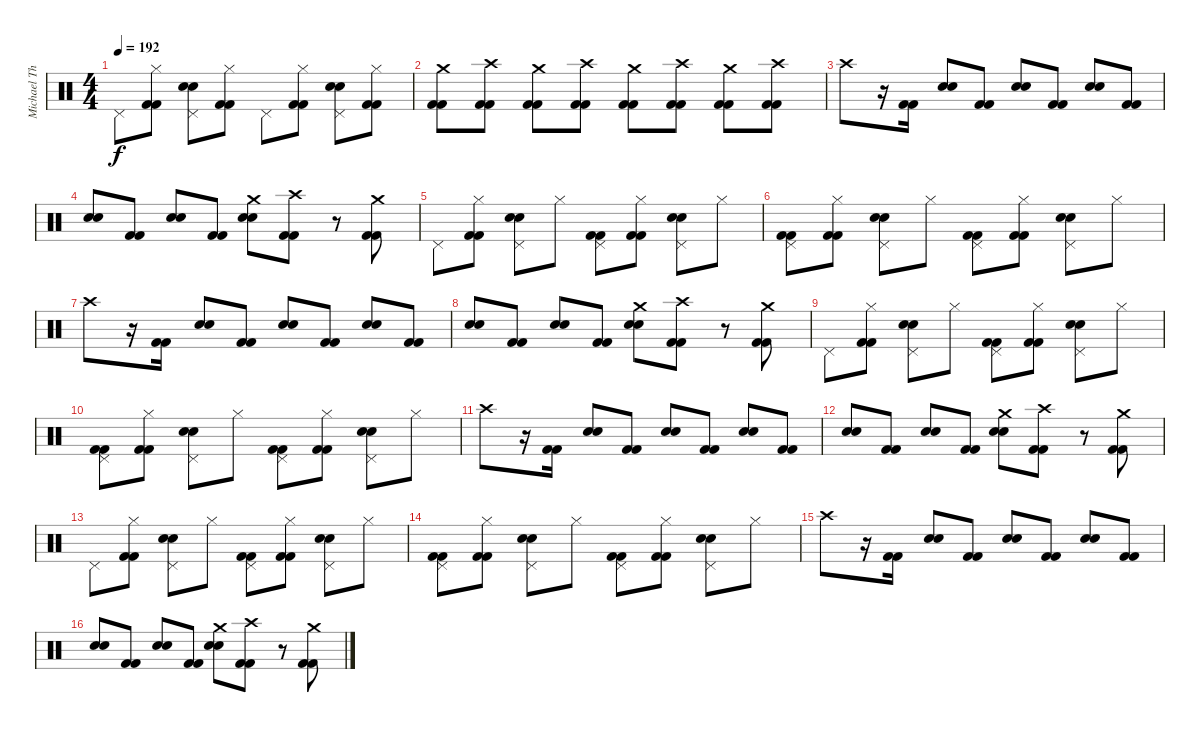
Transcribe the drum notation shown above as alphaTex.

\track ("Michael Thomas" "Michael Th") {instrument percussion}
\staff {score}
\articulation defaults
\ts (4 4)
\tempo 192
\clef neutral
\ks c "Pedal Hi-Hat (hit)".8{dy f}
("Hi-Hat (closed)" "Kick (hit) 2" "Kick (hit) 2").8 ("Pedal Hi-Hat (hit)" "Snare (hit) 2" "Electric Snare (hit)").8 ("Hi-Hat (closed)" "Kick (hit) 2" "Kick (hit) 2").8 "Pedal Hi-Hat (hit)".8 ("Hi-Hat (closed)" "Kick (hit) 2" "Kick (hit) 2").8 ("Pedal Hi-Hat (hit)" "Snare (hit) 2" "Electric Snare (hit)").8 ("Hi-Hat (closed)" "Kick (hit) 2" "Kick (hit) 2").8 |
("Crash medium (hit)" "Kick (hit) 2" "Kick (hit) 2").8 ("Crash high (hit)" "Kick (hit) 2" "Kick (hit) 2").8 ("Crash medium (hit)" "Kick (hit) 2" "Kick (hit) 2").8 ("Crash high (hit)" "Kick (hit) 2" "Kick (hit) 2").8 ("Crash medium (hit)" "Kick (hit) 2" "Kick (hit) 2").8 ("Crash high (hit)" "Kick (hit) 2" "Kick (hit) 2").8 ("Crash medium (hit)" "Kick (hit) 2" "Kick (hit) 2").8 ("Crash high (hit)" "Kick (hit) 2" "Kick (hit) 2").8 |
"Crash high (hit)".8 r.16 ("Kick (hit) 2" "Kick (hit) 2").16 ("Snare (hit) 2" "Electric Snare (hit)").8 ("Kick (hit) 2" "Kick (hit) 2").8 ("Snare (hit) 2" "Electric Snare (hit)").8 ("Kick (hit) 2" "Kick (hit) 2").8 ("Snare (hit) 2" "Electric Snare (hit)").8 ("Kick (hit) 2" "Kick (hit) 2").8 |
("Snare (hit) 2" "Electric Snare (hit)").8 ("Kick (hit) 2" "Kick (hit) 2").8 ("Snare (hit) 2" "Electric Snare (hit)").8 ("Kick (hit) 2" "Kick (hit) 2").8 ("Crash medium (hit)" "Snare (hit) 2" "Electric Snare (hit)").8 ("Crash high (hit)" "Kick (hit) 2" "Kick (hit) 2").8 r.8 ("Crash medium (hit)" "Kick (hit) 2" "Kick (hit) 2").8 |
"Pedal Hi-Hat (hit)".8 ("Hi-Hat (closed)" "Kick (hit) 2" "Kick (hit) 2").8 ("Pedal Hi-Hat (hit)" "Snare (hit) 2" "Electric Snare (hit)").8 "Hi-Hat (closed)".8 ("Pedal Hi-Hat (hit)" "Kick (hit) 2" "Kick (hit) 2").8 ("Hi-Hat (closed)" "Kick (hit) 2" "Kick (hit) 2").8 ("Pedal Hi-Hat (hit)" "Snare (hit) 2" "Electric Snare (hit)").8 "Hi-Hat (closed)".8 |
("Pedal Hi-Hat (hit)" "Kick (hit) 2" "Kick (hit) 2").8 ("Hi-Hat (closed)" "Kick (hit) 2" "Kick (hit) 2").8 ("Pedal Hi-Hat (hit)" "Snare (hit) 2" "Electric Snare (hit)").8 "Hi-Hat (closed)".8 ("Pedal Hi-Hat (hit)" "Kick (hit) 2" "Kick (hit) 2").8 ("Hi-Hat (closed)" "Kick (hit) 2" "Kick (hit) 2").8 ("Pedal Hi-Hat (hit)" "Snare (hit) 2" "Electric Snare (hit)").8 "Hi-Hat (closed)".8 |
"Crash high (hit)".8 r.16 ("Kick (hit) 2" "Kick (hit) 2").16 ("Snare (hit) 2" "Electric Snare (hit)").8 ("Kick (hit) 2" "Kick (hit) 2").8 ("Snare (hit) 2" "Electric Snare (hit)").8 ("Kick (hit) 2" "Kick (hit) 2").8 ("Snare (hit) 2" "Electric Snare (hit)").8 ("Kick (hit) 2" "Kick (hit) 2").8 |
("Snare (hit) 2" "Electric Snare (hit)").8 ("Kick (hit) 2" "Kick (hit) 2").8 ("Snare (hit) 2" "Electric Snare (hit)").8 ("Kick (hit) 2" "Kick (hit) 2").8 ("Crash medium (hit)" "Snare (hit) 2" "Electric Snare (hit)").8 ("Crash high (hit)" "Kick (hit) 2" "Kick (hit) 2").8 r.8 ("Crash medium (hit)" "Kick (hit) 2" "Kick (hit) 2").8 |
"Pedal Hi-Hat (hit)".8 ("Hi-Hat (closed)" "Kick (hit) 2" "Kick (hit) 2").8 ("Pedal Hi-Hat (hit)" "Snare (hit) 2" "Electric Snare (hit)").8 "Hi-Hat (closed)".8 ("Pedal Hi-Hat (hit)" "Kick (hit) 2" "Kick (hit) 2").8 ("Hi-Hat (closed)" "Kick (hit) 2" "Kick (hit) 2").8 ("Pedal Hi-Hat (hit)" "Snare (hit) 2" "Electric Snare (hit)").8 "Hi-Hat (closed)".8 |
("Pedal Hi-Hat (hit)" "Kick (hit) 2" "Kick (hit) 2").8 ("Hi-Hat (closed)" "Kick (hit) 2" "Kick (hit) 2").8 ("Pedal Hi-Hat (hit)" "Snare (hit) 2" "Electric Snare (hit)").8 "Hi-Hat (closed)".8 ("Pedal Hi-Hat (hit)" "Kick (hit) 2" "Kick (hit) 2").8 ("Hi-Hat (closed)" "Kick (hit) 2" "Kick (hit) 2").8 ("Pedal Hi-Hat (hit)" "Snare (hit) 2" "Electric Snare (hit)").8 "Hi-Hat (closed)".8 |
"Crash high (hit)".8 r.16 ("Kick (hit) 2" "Kick (hit) 2").16 ("Snare (hit) 2" "Electric Snare (hit)").8 ("Kick (hit) 2" "Kick (hit) 2").8 ("Snare (hit) 2" "Electric Snare (hit)").8 ("Kick (hit) 2" "Kick (hit) 2").8 ("Snare (hit) 2" "Electric Snare (hit)").8 ("Kick (hit) 2" "Kick (hit) 2").8 |
("Snare (hit) 2" "Electric Snare (hit)").8 ("Kick (hit) 2" "Kick (hit) 2").8 ("Snare (hit) 2" "Electric Snare (hit)").8 ("Kick (hit) 2" "Kick (hit) 2").8 ("Crash medium (hit)" "Snare (hit) 2" "Electric Snare (hit)").8 ("Crash high (hit)" "Kick (hit) 2" "Kick (hit) 2").8 r.8 ("Crash medium (hit)" "Kick (hit) 2" "Kick (hit) 2").8 |
"Pedal Hi-Hat (hit)".8 ("Hi-Hat (closed)" "Kick (hit) 2" "Kick (hit) 2").8 ("Pedal Hi-Hat (hit)" "Snare (hit) 2" "Electric Snare (hit)").8 "Hi-Hat (closed)".8 ("Pedal Hi-Hat (hit)" "Kick (hit) 2" "Kick (hit) 2").8 ("Hi-Hat (closed)" "Kick (hit) 2" "Kick (hit) 2").8 ("Pedal Hi-Hat (hit)" "Snare (hit) 2" "Electric Snare (hit)").8 "Hi-Hat (closed)".8 |
("Pedal Hi-Hat (hit)" "Kick (hit) 2" "Kick (hit) 2").8 ("Hi-Hat (closed)" "Kick (hit) 2" "Kick (hit) 2").8 ("Pedal Hi-Hat (hit)" "Snare (hit) 2" "Electric Snare (hit)").8 "Hi-Hat (closed)".8 ("Pedal Hi-Hat (hit)" "Kick (hit) 2" "Kick (hit) 2").8 ("Hi-Hat (closed)" "Kick (hit) 2" "Kick (hit) 2").8 ("Pedal Hi-Hat (hit)" "Snare (hit) 2" "Electric Snare (hit)").8 "Hi-Hat (closed)".8 |
"Crash high (hit)".8 r.16 ("Kick (hit) 2" "Kick (hit) 2").16 ("Snare (hit) 2" "Electric Snare (hit)").8 ("Kick (hit) 2" "Kick (hit) 2").8 ("Snare (hit) 2" "Electric Snare (hit)").8 ("Kick (hit) 2" "Kick (hit) 2").8 ("Snare (hit) 2" "Electric Snare (hit)").8 ("Kick (hit) 2" "Kick (hit) 2").8 |
("Snare (hit) 2" "Electric Snare (hit)").8 ("Kick (hit) 2" "Kick (hit) 2").8 ("Snare (hit) 2" "Electric Snare (hit)").8 ("Kick (hit) 2" "Kick (hit) 2").8 ("Crash medium (hit)" "Snare (hit) 2" "Electric Snare (hit)").8 ("Crash high (hit)" "Kick (hit) 2" "Kick (hit) 2").8 r.8 ("Crash medium (hit)" "Kick (hit) 2" "Kick (hit) 2").8
